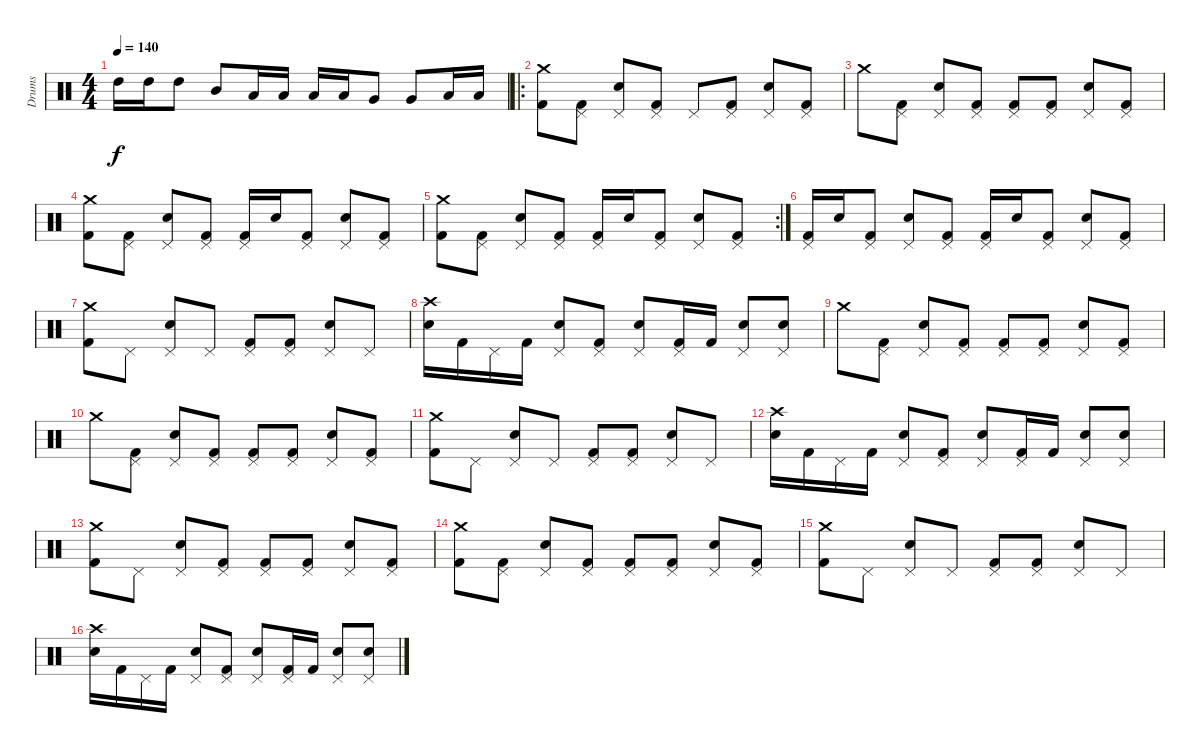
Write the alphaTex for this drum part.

\track ("Drums" "Drums") {instrument percussion}
\staff {score}
\articulation defaults
\ts (4 4)
\tempo 140
\clef neutral
\ks c "High Tom (hit)".16{dy f} "High Tom (hit)".16 "High Tom (hit)".8 "Mid Tom (hit)".8 "Low Tom (hit)".16 "Low Tom (hit)".16 "Low Tom (hit)".16 "Low Tom (hit)".16 "Very Low Tom (hit)".8 "Very Low Tom (hit)".8 "Low Floor Tom (hit)".16 "Low Floor Tom (hit)".16
|
\ro
("Crash medium (hit)" "Kick (hit) 2").8 ("Pedal Hi-Hat (hit)" "Kick (hit) 2").8 ("Pedal Hi-Hat (hit)" "Electric Snare (hit)").8 ("Pedal Hi-Hat (hit)" "Kick (hit) 2").8 "Pedal Hi-Hat (hit)".8 ("Pedal Hi-Hat (hit)" "Kick (hit) 2").8 ("Pedal Hi-Hat (hit)" "Electric Snare (hit)").8 ("Pedal Hi-Hat (hit)" "Kick (hit) 2").8 |
"Crash medium (hit)".8 ("Pedal Hi-Hat (hit)" "Kick (hit) 2").8 ("Pedal Hi-Hat (hit)" "Electric Snare (hit)").8 ("Pedal Hi-Hat (hit)" "Kick (hit) 2").8 ("Pedal Hi-Hat (hit)" "Kick (hit) 2").8 ("Pedal Hi-Hat (hit)" "Kick (hit) 2").8 ("Pedal Hi-Hat (hit)" "Electric Snare (hit)").8 ("Pedal Hi-Hat (hit)" "Kick (hit) 2").8 |
("Crash medium (hit)" "Kick (hit) 2").8 ("Pedal Hi-Hat (hit)" "Kick (hit) 2").8 ("Pedal Hi-Hat (hit)" "Electric Snare (hit)").8 ("Pedal Hi-Hat (hit)" "Kick (hit) 2").8 ("Pedal Hi-Hat (hit)" "Kick (hit) 2").16 "Electric Snare (hit)".16 ("Pedal Hi-Hat (hit)" "Kick (hit) 2").8 ("Pedal Hi-Hat (hit)" "Electric Snare (hit)").8 ("Pedal Hi-Hat (hit)" "Kick (hit) 2").8 |
\rc 2
("Crash medium (hit)" "Kick (hit) 2").8 ("Pedal Hi-Hat (hit)" "Kick (hit) 2").8 ("Pedal Hi-Hat (hit)" "Electric Snare (hit)").8 ("Pedal Hi-Hat (hit)" "Kick (hit) 2").8 ("Pedal Hi-Hat (hit)" "Kick (hit) 2").16 "Electric Snare (hit)".16 ("Pedal Hi-Hat (hit)" "Kick (hit) 2").8 ("Pedal Hi-Hat (hit)" "Electric Snare (hit)").8 ("Pedal Hi-Hat (hit)" "Kick (hit) 2").8 |
("Pedal Hi-Hat (hit)" "Kick (hit) 2").16 "Electric Snare (hit)".16 ("Pedal Hi-Hat (hit)" "Kick (hit) 2").8 ("Pedal Hi-Hat (hit)" "Electric Snare (hit)").8 ("Pedal Hi-Hat (hit)" "Kick (hit) 2").8 ("Pedal Hi-Hat (hit)" "Kick (hit) 2").16 "Electric Snare (hit)".16 ("Pedal Hi-Hat (hit)" "Kick (hit) 2").8 ("Pedal Hi-Hat (hit)" "Electric Snare (hit)").8 ("Pedal Hi-Hat (hit)" "Kick (hit) 2").8 |
("Crash medium (hit)" "Kick (hit) 2").8 "Pedal Hi-Hat (hit)".8 ("Pedal Hi-Hat (hit)" "Electric Snare (hit)").8 "Pedal Hi-Hat (hit)".8 ("Pedal Hi-Hat (hit)" "Kick (hit) 2").8 ("Pedal Hi-Hat (hit)" "Kick (hit) 2").8 ("Pedal Hi-Hat (hit)" "Electric Snare (hit)").8 "Pedal Hi-Hat (hit)".8 |
("Crash high (hit)" "Electric Snare (hit)").16 "Kick (hit) 2".16 "Pedal Hi-Hat (hit)".16 "Kick (hit) 2".16 ("Pedal Hi-Hat (hit)" "Electric Snare (hit)").8 ("Pedal Hi-Hat (hit)" "Kick (hit) 2").8 ("Pedal Hi-Hat (hit)" "Electric Snare (hit)").8 ("Pedal Hi-Hat (hit)" "Kick (hit) 2").16 "Kick (hit) 2".16 ("Pedal Hi-Hat (hit)" "Electric Snare (hit)").8 ("Pedal Hi-Hat (hit)" "Electric Snare (hit)").8 |
"Crash medium (hit)".8 ("Pedal Hi-Hat (hit)" "Kick (hit) 2").8 ("Pedal Hi-Hat (hit)" "Electric Snare (hit)").8 ("Pedal Hi-Hat (hit)" "Kick (hit) 2").8 ("Pedal Hi-Hat (hit)" "Kick (hit) 2").8 ("Pedal Hi-Hat (hit)" "Kick (hit) 2").8 ("Pedal Hi-Hat (hit)" "Electric Snare (hit)").8 ("Pedal Hi-Hat (hit)" "Kick (hit) 2").8 |
"Crash medium (hit)".8 ("Pedal Hi-Hat (hit)" "Kick (hit) 2").8 ("Pedal Hi-Hat (hit)" "Electric Snare (hit)").8 ("Pedal Hi-Hat (hit)" "Kick (hit) 2").8 ("Pedal Hi-Hat (hit)" "Kick (hit) 2").8 ("Pedal Hi-Hat (hit)" "Kick (hit) 2").8 ("Pedal Hi-Hat (hit)" "Electric Snare (hit)").8 ("Pedal Hi-Hat (hit)" "Kick (hit) 2").8 |
("Crash medium (hit)" "Kick (hit) 2").8 "Pedal Hi-Hat (hit)".8 ("Pedal Hi-Hat (hit)" "Electric Snare (hit)").8 "Pedal Hi-Hat (hit)".8 ("Pedal Hi-Hat (hit)" "Kick (hit) 2").8 ("Pedal Hi-Hat (hit)" "Kick (hit) 2").8 ("Pedal Hi-Hat (hit)" "Electric Snare (hit)").8 "Pedal Hi-Hat (hit)".8 |
("Crash high (hit)" "Electric Snare (hit)").16 "Kick (hit) 2".16 "Pedal Hi-Hat (hit)".16 "Kick (hit) 2".16 ("Pedal Hi-Hat (hit)" "Electric Snare (hit)").8 ("Pedal Hi-Hat (hit)" "Kick (hit) 2").8 ("Pedal Hi-Hat (hit)" "Electric Snare (hit)").8 ("Pedal Hi-Hat (hit)" "Kick (hit) 2").16 "Kick (hit) 2".16 ("Pedal Hi-Hat (hit)" "Electric Snare (hit)").8 ("Pedal Hi-Hat (hit)" "Electric Snare (hit)").8 |
("Crash medium (hit)" "Kick (hit) 2").8 "Pedal Hi-Hat (hit)".8 ("Pedal Hi-Hat (hit)" "Electric Snare (hit)").8 ("Pedal Hi-Hat (hit)" "Kick (hit) 2").8 ("Pedal Hi-Hat (hit)" "Kick (hit) 2").8 ("Pedal Hi-Hat (hit)" "Kick (hit) 2").8 ("Pedal Hi-Hat (hit)" "Electric Snare (hit)").8 ("Pedal Hi-Hat (hit)" "Kick (hit) 2").8 |
("Crash medium (hit)" "Kick (hit) 2").8 ("Pedal Hi-Hat (hit)" "Kick (hit) 2").8 ("Pedal Hi-Hat (hit)" "Electric Snare (hit)").8 ("Pedal Hi-Hat (hit)" "Kick (hit) 2").8 ("Pedal Hi-Hat (hit)" "Kick (hit) 2").8 ("Pedal Hi-Hat (hit)" "Kick (hit) 2").8 ("Pedal Hi-Hat (hit)" "Electric Snare (hit)").8 ("Pedal Hi-Hat (hit)" "Kick (hit) 2").8 |
("Crash medium (hit)" "Kick (hit) 2").8 "Pedal Hi-Hat (hit)".8 ("Pedal Hi-Hat (hit)" "Electric Snare (hit)").8 "Pedal Hi-Hat (hit)".8 ("Pedal Hi-Hat (hit)" "Kick (hit) 2").8 ("Pedal Hi-Hat (hit)" "Kick (hit) 2").8 ("Pedal Hi-Hat (hit)" "Electric Snare (hit)").8 "Pedal Hi-Hat (hit)".8 |
("Crash high (hit)" "Electric Snare (hit)").16 "Kick (hit) 2".16 "Pedal Hi-Hat (hit)".16 "Kick (hit) 2".16 ("Pedal Hi-Hat (hit)" "Electric Snare (hit)").8 ("Pedal Hi-Hat (hit)" "Kick (hit) 2").8 ("Pedal Hi-Hat (hit)" "Electric Snare (hit)").8 ("Pedal Hi-Hat (hit)" "Kick (hit) 2").16 "Kick (hit) 2".16 ("Pedal Hi-Hat (hit)" "Electric Snare (hit)").8 ("Pedal Hi-Hat (hit)" "Electric Snare (hit)").8
